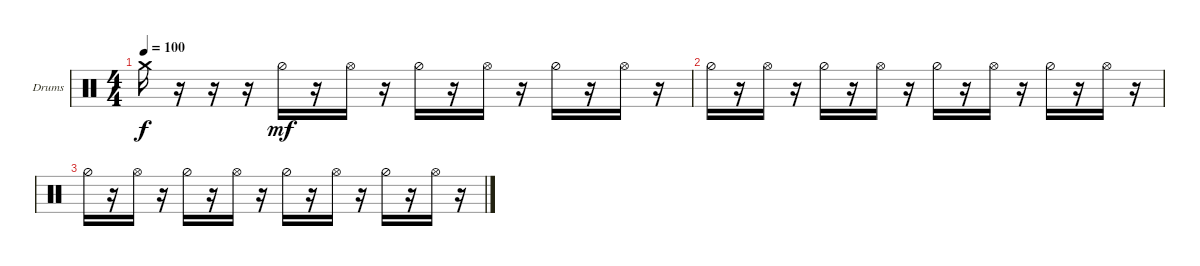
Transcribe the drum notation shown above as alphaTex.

\defaultSystemsLayout 4
\bracketExtendMode groupsimilarinstruments
\firstSystemTrackNameOrientation horizontal
\otherSystemsTrackNameOrientation horizontal
\track ("Drumkit" "Drums") {instrument percussion}
\staff {score}
\articulation defaults
\ts (4 4)
\tempo 100
\clef neutral
\ks c "Crash medium (hit)".16{dy f}
r.16 r.16 r.16 "Hi-Hat (half)".16{dy mf} r.16 "Hi-Hat (open)".16 r.16 "Hi-Hat (half)".16 r.16 "Hi-Hat (open)".16 r.16 "Hi-Hat (half)".16 r.16 "Hi-Hat (open)".16 r.16 |
"Hi-Hat (half)".16 r.16 "Hi-Hat (open)".16 r.16 "Hi-Hat (half)".16 r.16 "Hi-Hat (open)".16 r.16 "Hi-Hat (half)".16 r.16 "Hi-Hat (open)".16 r.16 "Hi-Hat (half)".16 r.16 "Hi-Hat (open)".16 r.16 |
"Hi-Hat (half)".16 r.16 "Hi-Hat (open)".16 r.16 "Hi-Hat (half)".16 r.16 "Hi-Hat (open)".16 r.16 "Hi-Hat (half)".16 r.16 "Hi-Hat (open)".16 r.16 "Hi-Hat (half)".16 r.16 "Hi-Hat (open)".16 r.16
